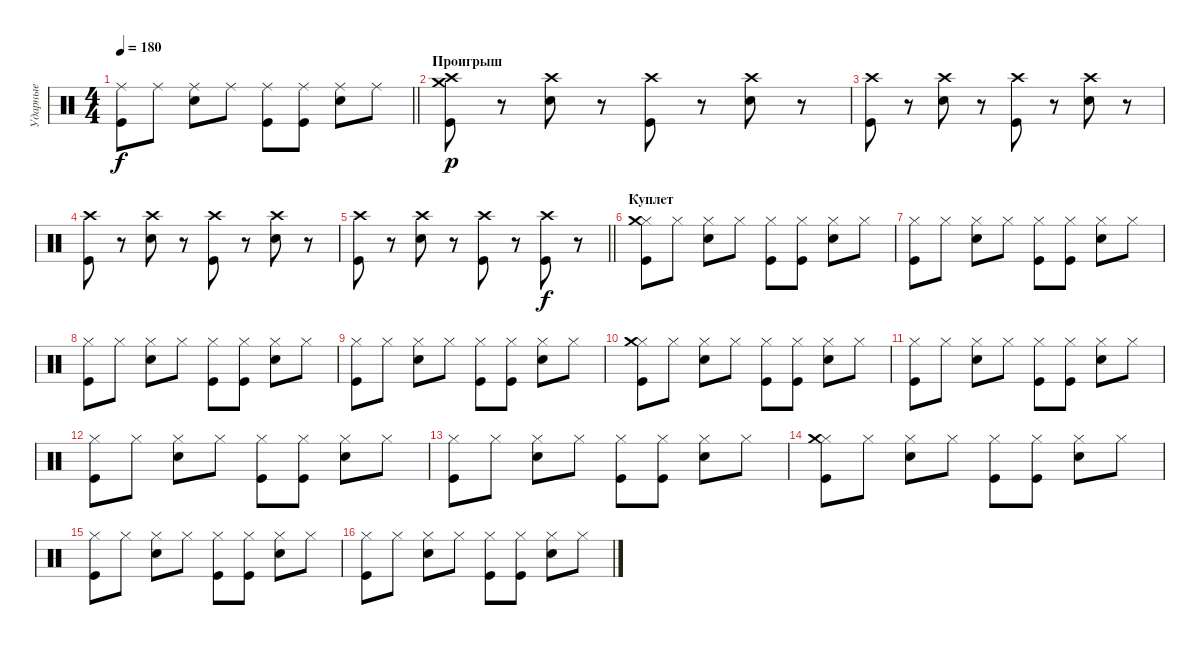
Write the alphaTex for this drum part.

\track ("Ударные" "Ударные") {instrument percussion}
\staff {score}
\articulation defaults
\ts (4 4)
\tempo 180
\clef neutral
\barLineRight lightlight
\ks c
("Ride (middle)" "Kick (hit)").8{dy f} "Ride (middle)".8 ("Ride (middle)" "Electric Snare (hit)").8 "Ride (middle)".8 ("Ride (middle)" "Kick (hit)").8 ("Ride (middle)" "Kick (hit)").8 ("Ride (middle)" "Electric Snare (hit)").8 "Ride (middle)".8 |
\section ("" "Проигрыш")
("Crash medium (hit)" "Kick (hit)" "Crash high (hit)").8{dy p} r.8 ("Electric Snare (hit)" "Crash high (hit)").8 r.8 ("Kick (hit)" "Crash high (hit)").8 r.8 ("Electric Snare (hit)" "Crash high (hit)").8 r.8 |
("Kick (hit)" "Crash high (hit)").8 r.8 ("Electric Snare (hit)" "Crash high (hit)").8 r.8 ("Kick (hit)" "Crash high (hit)").8 r.8 ("Electric Snare (hit)" "Crash high (hit)").8 r.8 |
("Kick (hit)" "Crash high (hit)").8 r.8 ("Electric Snare (hit)" "Crash high (hit)").8 r.8 ("Kick (hit)" "Crash high (hit)").8 r.8 ("Electric Snare (hit)" "Crash high (hit)").8 r.8 |
\barLineRight lightlight
("Kick (hit)" "Crash high (hit)").8 r.8 ("Electric Snare (hit)" "Crash high (hit)").8 r.8 ("Kick (hit)" "Crash high (hit)").8 r.8 ("Kick (hit)" "Crash high (hit)").8{dy f} r.8 |
\section ("" "Куплет")
("Hi-Hat (closed)" "Kick (hit)" "Crash medium (hit)").8 "Hi-Hat (closed)".8 ("Hi-Hat (closed)" "Electric Snare (hit)").8 "Hi-Hat (closed)".8 ("Hi-Hat (closed)" "Kick (hit)").8 ("Hi-Hat (closed)" "Kick (hit)").8 ("Hi-Hat (closed)" "Electric Snare (hit)").8 "Hi-Hat (closed)".8 |
("Hi-Hat (closed)" "Kick (hit)").8 "Hi-Hat (closed)".8 ("Hi-Hat (closed)" "Electric Snare (hit)").8 "Hi-Hat (closed)".8 ("Hi-Hat (closed)" "Kick (hit)").8 ("Hi-Hat (closed)" "Kick (hit)").8 ("Hi-Hat (closed)" "Electric Snare (hit)").8 "Hi-Hat (closed)".8 |
("Hi-Hat (closed)" "Kick (hit)").8 "Hi-Hat (closed)".8 ("Hi-Hat (closed)" "Electric Snare (hit)").8 "Hi-Hat (closed)".8 ("Hi-Hat (closed)" "Kick (hit)").8 ("Hi-Hat (closed)" "Kick (hit)").8 ("Hi-Hat (closed)" "Electric Snare (hit)").8 "Hi-Hat (closed)".8 |
("Hi-Hat (closed)" "Kick (hit)").8 "Hi-Hat (closed)".8 ("Hi-Hat (closed)" "Electric Snare (hit)").8 "Hi-Hat (closed)".8 ("Hi-Hat (closed)" "Kick (hit)").8 ("Hi-Hat (closed)" "Kick (hit)").8 ("Hi-Hat (closed)" "Electric Snare (hit)").8 "Hi-Hat (closed)".8 |
("Hi-Hat (closed)" "Kick (hit)" "Crash medium (hit)").8 "Hi-Hat (closed)".8 ("Hi-Hat (closed)" "Electric Snare (hit)").8 "Hi-Hat (closed)".8 ("Hi-Hat (closed)" "Kick (hit)").8 ("Hi-Hat (closed)" "Kick (hit)").8 ("Hi-Hat (closed)" "Electric Snare (hit)").8 "Hi-Hat (closed)".8 |
("Hi-Hat (closed)" "Kick (hit)").8 "Hi-Hat (closed)".8 ("Hi-Hat (closed)" "Electric Snare (hit)").8 "Hi-Hat (closed)".8 ("Hi-Hat (closed)" "Kick (hit)").8 ("Hi-Hat (closed)" "Kick (hit)").8 ("Hi-Hat (closed)" "Electric Snare (hit)").8 "Hi-Hat (closed)".8 |
("Hi-Hat (closed)" "Kick (hit)").8 "Hi-Hat (closed)".8 ("Hi-Hat (closed)" "Electric Snare (hit)").8 "Hi-Hat (closed)".8 ("Hi-Hat (closed)" "Kick (hit)").8 ("Hi-Hat (closed)" "Kick (hit)").8 ("Hi-Hat (closed)" "Electric Snare (hit)").8 "Hi-Hat (closed)".8 |
("Hi-Hat (closed)" "Kick (hit)").8 "Hi-Hat (closed)".8 ("Hi-Hat (closed)" "Electric Snare (hit)").8 "Hi-Hat (closed)".8 ("Hi-Hat (closed)" "Kick (hit)").8 ("Hi-Hat (closed)" "Kick (hit)").8 ("Hi-Hat (closed)" "Electric Snare (hit)").8 "Hi-Hat (closed)".8 |
("Hi-Hat (closed)" "Kick (hit)" "Crash medium (hit)").8 "Hi-Hat (closed)".8 ("Hi-Hat (closed)" "Electric Snare (hit)").8 "Hi-Hat (closed)".8 ("Hi-Hat (closed)" "Kick (hit)").8 ("Hi-Hat (closed)" "Kick (hit)").8 ("Hi-Hat (closed)" "Electric Snare (hit)").8 "Hi-Hat (closed)".8 |
("Hi-Hat (closed)" "Kick (hit)").8 "Hi-Hat (closed)".8 ("Hi-Hat (closed)" "Electric Snare (hit)").8 "Hi-Hat (closed)".8 ("Hi-Hat (closed)" "Kick (hit)").8 ("Hi-Hat (closed)" "Kick (hit)").8 ("Hi-Hat (closed)" "Electric Snare (hit)").8 "Hi-Hat (closed)".8 |
("Hi-Hat (closed)" "Kick (hit)").8 "Hi-Hat (closed)".8 ("Hi-Hat (closed)" "Electric Snare (hit)").8 "Hi-Hat (closed)".8 ("Hi-Hat (closed)" "Kick (hit)").8 ("Hi-Hat (closed)" "Kick (hit)").8 ("Hi-Hat (closed)" "Electric Snare (hit)").8 "Hi-Hat (closed)".8
